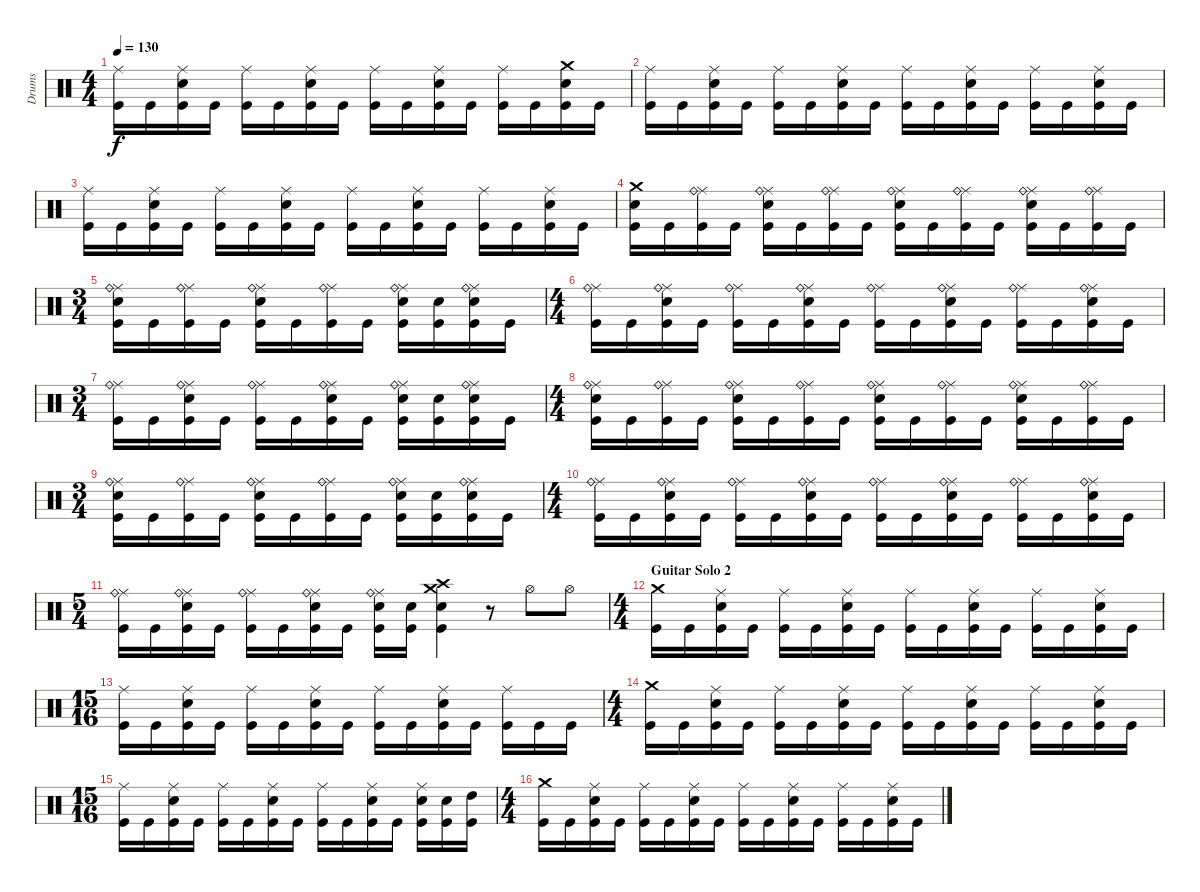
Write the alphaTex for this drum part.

\track ("Drums" "Drums") {instrument percussion}
\staff {score}
\articulation defaults
\ts (4 4)
\tempo 130
\clef neutral
\ks c
("Ride (middle)" "Kick (hit)").16{dy f} "Kick (hit)".16 ("Ride (middle)" "Electric Snare (hit)" "Kick (hit)").16 "Kick (hit)".16 ("Ride (middle)" "Kick (hit)").16 "Kick (hit)".16 ("Ride (middle)" "Electric Snare (hit)" "Kick (hit)").16 "Kick (hit)".16 ("Ride (middle)" "Kick (hit)").16 "Kick (hit)".16 ("Ride (middle)" "Electric Snare (hit)" "Kick (hit)").16 "Kick (hit)".16 ("Ride (middle)" "Kick (hit)").16 "Kick (hit)".16 ("Crash medium (hit)" "Electric Snare (hit)" "Kick (hit)").16 "Kick (hit)".16 |
("Ride (middle)" "Kick (hit)").16 "Kick (hit)".16 ("Ride (middle)" "Electric Snare (hit)" "Kick (hit)").16 "Kick (hit)".16 ("Ride (middle)" "Kick (hit)").16 "Kick (hit)".16 ("Ride (middle)" "Electric Snare (hit)" "Kick (hit)").16 "Kick (hit)".16 ("Ride (middle)" "Kick (hit)").16 "Kick (hit)".16 ("Ride (middle)" "Electric Snare (hit)" "Kick (hit)").16 "Kick (hit)".16 ("Ride (middle)" "Kick (hit)").16 "Kick (hit)".16 ("Ride (middle)" "Electric Snare (hit)" "Kick (hit)").16 "Kick (hit)".16 |
("Ride (middle)" "Kick (hit)").16 "Kick (hit)".16 ("Ride (middle)" "Electric Snare (hit)" "Kick (hit)").16 "Kick (hit)".16 ("Ride (middle)" "Kick (hit)").16 "Kick (hit)".16 ("Ride (middle)" "Electric Snare (hit)" "Kick (hit)").16 "Kick (hit)".16 ("Ride (middle)" "Kick (hit)").16 "Kick (hit)".16 ("Ride (middle)" "Electric Snare (hit)" "Kick (hit)").16 "Kick (hit)".16 ("Ride (middle)" "Kick (hit)").16 "Kick (hit)".16 ("Ride (middle)" "Electric Snare (hit)" "Kick (hit)").16 "Kick (hit)".16 |
("Crash medium (hit)" "Snare (hit) 2" "Kick (hit)").16 "Kick (hit)".16 ("Ride (middle)" "Ride (bell)" "Kick (hit)").16 "Kick (hit)".16 ("Ride (middle)" "Ride (bell)" "Snare (hit) 2" "Kick (hit)").16 "Kick (hit)".16 ("Ride (middle)" "Ride (bell)" "Kick (hit)").16 "Kick (hit)".16 ("Ride (middle)" "Ride (bell)" "Snare (hit) 2" "Kick (hit)").16 "Kick (hit)".16 ("Ride (middle)" "Ride (bell)" "Kick (hit)").16 "Kick (hit)".16 ("Ride (middle)" "Ride (bell)" "Snare (hit) 2" "Kick (hit)").16 "Kick (hit)".16 ("Ride (middle)" "Ride (bell)" "Kick (hit)").16 "Kick (hit)".16 |
\ts (3 4)
("Ride (middle)" "Ride (bell)" "Snare (hit) 2" "Kick (hit)").16 "Kick (hit)".16 ("Ride (middle)" "Ride (bell)" "Kick (hit)").16 "Kick (hit)".16 ("Ride (middle)" "Ride (bell)" "Snare (hit) 2" "Kick (hit)").16 "Kick (hit)".16 ("Ride (middle)" "Ride (bell)" "Kick (hit)").16 "Kick (hit)".16 ("Ride (middle)" "Ride (bell)" "Snare (hit) 2" "Kick (hit)").16 ("Snare (hit) 2" "Kick (hit)").16 ("Ride (middle)" "Ride (bell)" "Snare (hit) 2" "Kick (hit)").16 "Kick (hit)".16 |
\ts (4 4)
("Ride (middle)" "Ride (bell)" "Kick (hit)").16 "Kick (hit)".16 ("Ride (middle)" "Ride (bell)" "Snare (hit) 2" "Kick (hit)").16 "Kick (hit)".16 ("Ride (middle)" "Ride (bell)" "Kick (hit)").16 "Kick (hit)".16 ("Ride (middle)" "Ride (bell)" "Snare (hit) 2" "Kick (hit)").16 "Kick (hit)".16 ("Ride (middle)" "Ride (bell)" "Kick (hit)").16 "Kick (hit)".16 ("Ride (middle)" "Ride (bell)" "Snare (hit) 2" "Kick (hit)").16 "Kick (hit)".16 ("Ride (middle)" "Ride (bell)" "Kick (hit)").16 "Kick (hit)".16 ("Ride (middle)" "Ride (bell)" "Snare (hit) 2" "Kick (hit)").16 "Kick (hit)".16 |
\ts (3 4)
("Ride (middle)" "Ride (bell)" "Kick (hit)").16 "Kick (hit)".16 ("Ride (middle)" "Ride (bell)" "Snare (hit) 2" "Kick (hit)").16 "Kick (hit)".16 ("Ride (middle)" "Ride (bell)" "Kick (hit)").16 "Kick (hit)".16 ("Ride (middle)" "Ride (bell)" "Snare (hit) 2" "Kick (hit)").16 "Kick (hit)".16 ("Ride (middle)" "Ride (bell)" "Snare (hit) 2" "Kick (hit)").16 ("Snare (hit) 2" "Kick (hit)").16 ("Ride (middle)" "Ride (bell)" "Snare (hit) 2" "Kick (hit)").16 "Kick (hit)".16 |
\ts (4 4)
("Ride (middle)" "Ride (bell)" "Snare (hit) 2" "Kick (hit)").16 "Kick (hit)".16 ("Ride (middle)" "Ride (bell)" "Kick (hit)").16 "Kick (hit)".16 ("Ride (middle)" "Ride (bell)" "Snare (hit) 2" "Kick (hit)").16 "Kick (hit)".16 ("Ride (middle)" "Ride (bell)" "Kick (hit)").16 "Kick (hit)".16 ("Ride (middle)" "Ride (bell)" "Snare (hit) 2" "Kick (hit)").16 "Kick (hit)".16 ("Ride (middle)" "Ride (bell)" "Kick (hit)").16 "Kick (hit)".16 ("Ride (middle)" "Ride (bell)" "Snare (hit) 2" "Kick (hit)").16 "Kick (hit)".16 ("Ride (middle)" "Ride (bell)" "Kick (hit)").16 "Kick (hit)".16 |
\ts (3 4)
("Ride (middle)" "Ride (bell)" "Snare (hit) 2" "Kick (hit)").16 "Kick (hit)".16 ("Ride (middle)" "Ride (bell)" "Kick (hit)").16 "Kick (hit)".16 ("Ride (middle)" "Ride (bell)" "Snare (hit) 2" "Kick (hit)").16 "Kick (hit)".16 ("Ride (middle)" "Ride (bell)" "Kick (hit)").16 "Kick (hit)".16 ("Ride (middle)" "Ride (bell)" "Snare (hit) 2" "Kick (hit)").16 ("Snare (hit) 2" "Kick (hit)").16 ("Ride (middle)" "Ride (bell)" "Snare (hit) 2" "Kick (hit)").16 "Kick (hit)".16 |
\ts (4 4)
("Ride (middle)" "Ride (bell)" "Kick (hit)").16 "Kick (hit)".16 ("Ride (middle)" "Ride (bell)" "Snare (hit) 2" "Kick (hit)").16 "Kick (hit)".16 ("Ride (middle)" "Ride (bell)" "Kick (hit)").16 "Kick (hit)".16 ("Ride (middle)" "Ride (bell)" "Snare (hit) 2" "Kick (hit)").16 "Kick (hit)".16 ("Ride (middle)" "Ride (bell)" "Kick (hit)").16 "Kick (hit)".16 ("Ride (middle)" "Ride (bell)" "Snare (hit) 2" "Kick (hit)").16 "Kick (hit)".16 ("Ride (middle)" "Ride (bell)" "Kick (hit)").16 "Kick (hit)".16 ("Ride (middle)" "Ride (bell)" "Snare (hit) 2" "Kick (hit)").16 "Kick (hit)".16 |
\ts (5 4)
("Ride (middle)" "Ride (bell)" "Kick (hit)").16 "Kick (hit)".16 ("Ride (middle)" "Ride (bell)" "Snare (hit) 2" "Kick (hit)").16 "Kick (hit)".16 ("Ride (middle)" "Ride (bell)" "Kick (hit)").16 "Kick (hit)".16 ("Ride (middle)" "Ride (bell)" "Snare (hit) 2" "Kick (hit)").16 "Kick (hit)".16 ("Ride (middle)" "Ride (bell)" "Snare (hit) 2" "Kick (hit)").16 ("Snare (hit) 2" "Kick (hit)").16 ("Crash medium (hit)" "Crash high (hit)" "Snare (hit) 2" "Kick (hit)").4 r.8 "Hi-Hat (open)".8 "Hi-Hat (open)".8 |
\ts (4 4)
\section ("" "Guitar Solo 2")
("Crash medium (hit)" "Kick (hit)").16 "Kick (hit)".16 ("Ride (middle)" "Snare (hit) 2" "Kick (hit)").16 "Kick (hit)".16 ("Ride (middle)" "Kick (hit)").16 "Kick (hit)".16 ("Ride (middle)" "Snare (hit) 2" "Kick (hit)").16 "Kick (hit)".16 ("Ride (middle)" "Kick (hit)").16 "Kick (hit)".16 ("Ride (middle)" "Snare (hit) 2" "Kick (hit)").16 "Kick (hit)".16 ("Ride (middle)" "Kick (hit)").16 "Kick (hit)".16 ("Ride (middle)" "Snare (hit) 2" "Kick (hit)").16 "Kick (hit)".16 |
\ts (15 16)
("Ride (middle)" "Kick (hit)").16 "Kick (hit)".16 ("Ride (middle)" "Snare (hit) 2" "Kick (hit)").16 "Kick (hit)".16 ("Ride (middle)" "Kick (hit)").16 "Kick (hit)".16 ("Ride (middle)" "Snare (hit) 2" "Kick (hit)").16 "Kick (hit)".16 ("Ride (middle)" "Kick (hit)").16 "Kick (hit)".16 ("Ride (middle)" "Snare (hit) 2" "Kick (hit)").16 "Kick (hit)".16 ("Ride (middle)" "Kick (hit)").16 "Kick (hit)".16 "Kick (hit)".16 |
\ts (4 4)
("Crash medium (hit)" "Kick (hit)").16 "Kick (hit)".16 ("Ride (middle)" "Snare (hit) 2" "Kick (hit)").16 "Kick (hit)".16 ("Ride (middle)" "Kick (hit)").16 "Kick (hit)".16 ("Ride (middle)" "Snare (hit) 2" "Kick (hit)").16 "Kick (hit)".16 ("Ride (middle)" "Kick (hit)").16 "Kick (hit)".16 ("Ride (middle)" "Snare (hit) 2" "Kick (hit)").16 "Kick (hit)".16 ("Ride (middle)" "Kick (hit)").16 "Kick (hit)".16 ("Ride (middle)" "Snare (hit) 2" "Kick (hit)").16 "Kick (hit)".16 |
\ts (15 16)
("Ride (middle)" "Kick (hit)").16 "Kick (hit)".16 ("Ride (middle)" "Snare (hit) 2" "Kick (hit)").16 "Kick (hit)".16 ("Ride (middle)" "Kick (hit)").16 "Kick (hit)".16 ("Ride (middle)" "Snare (hit) 2" "Kick (hit)").16 "Kick (hit)".16 ("Ride (middle)" "Kick (hit)").16 "Kick (hit)".16 ("Ride (middle)" "Snare (hit) 2" "Kick (hit)").16 "Kick (hit)".16 ("Ride (middle)" "Snare (hit) 2" "Kick (hit)").16 ("Snare (hit) 2" "Kick (hit)").16 ("High Tom (hit)" "Kick (hit)").16 |
\ts (4 4)
("Crash medium (hit)" "Kick (hit)").16 "Kick (hit)".16 ("Ride (middle)" "Snare (hit) 2" "Kick (hit)").16 "Kick (hit)".16 ("Ride (middle)" "Kick (hit)").16 "Kick (hit)".16 ("Ride (middle)" "Snare (hit) 2" "Kick (hit)").16 "Kick (hit)".16 ("Ride (middle)" "Kick (hit)").16 "Kick (hit)".16 ("Ride (middle)" "Snare (hit) 2" "Kick (hit)").16 "Kick (hit)".16 ("Ride (middle)" "Kick (hit)").16 "Kick (hit)".16 ("Ride (middle)" "Snare (hit) 2" "Kick (hit)").16 "Kick (hit)".16
